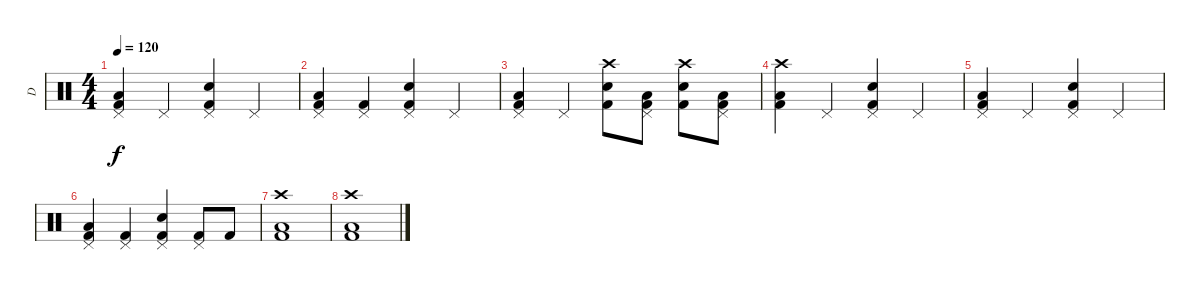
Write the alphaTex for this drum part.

\track ("D" "D") {instrument percussion}
\staff {score}
\articulation defaults
\ts (4 4)
\tempo 120
\clef neutral
\ks c
("Pedal Hi-Hat (hit)" "Low Floor Tom (hit)" "Kick (hit) 2").4{dy f} "Pedal Hi-Hat (hit)".4 ("Pedal Hi-Hat (hit)" "Snare (hit) 2" "Kick (hit) 2").4 "Pedal Hi-Hat (hit)".4 |
("Pedal Hi-Hat (hit)" "Low Floor Tom (hit)" "Kick (hit) 2").4 ("Pedal Hi-Hat (hit)" "Kick (hit) 2").4 ("Pedal Hi-Hat (hit)" "Snare (hit) 2" "Kick (hit) 2").4 "Pedal Hi-Hat (hit)".4 |
("Pedal Hi-Hat (hit)" "Low Floor Tom (hit)" "Kick (hit) 2").4 "Pedal Hi-Hat (hit)".4 ("Crash high (hit)" "Snare (hit) 2" "Kick (hit) 2").8 ("Pedal Hi-Hat (hit)" "Low Floor Tom (hit)" "Kick (hit) 2").8 ("Crash high (hit)" "Snare (hit) 2" "Kick (hit) 2").8 ("Pedal Hi-Hat (hit)" "Low Floor Tom (hit)" "Kick (hit) 2").8 |
("Crash high (hit)" "Low Floor Tom (hit)" "Kick (hit) 2").4 "Pedal Hi-Hat (hit)".4 ("Pedal Hi-Hat (hit)" "Snare (hit) 2" "Kick (hit) 2").4 "Pedal Hi-Hat (hit)".4 |
("Pedal Hi-Hat (hit)" "Low Floor Tom (hit)" "Kick (hit) 2").4 "Pedal Hi-Hat (hit)".4 ("Pedal Hi-Hat (hit)" "Snare (hit) 2" "Kick (hit) 2").4 "Pedal Hi-Hat (hit)".4 |
("Pedal Hi-Hat (hit)" "Low Floor Tom (hit)" "Kick (hit) 2").4 ("Pedal Hi-Hat (hit)" "Kick (hit) 2").4 ("Pedal Hi-Hat (hit)" "Snare (hit) 2" "Kick (hit) 2").4 ("Pedal Hi-Hat (hit)" "Kick (hit) 2").8 "Kick (hit) 2".8 |
("Crash high (hit)" "Low Floor Tom (hit)" "Kick (hit) 2").1 |
("Crash high (hit)" "Low Floor Tom (hit)" "Kick (hit) 2").1
